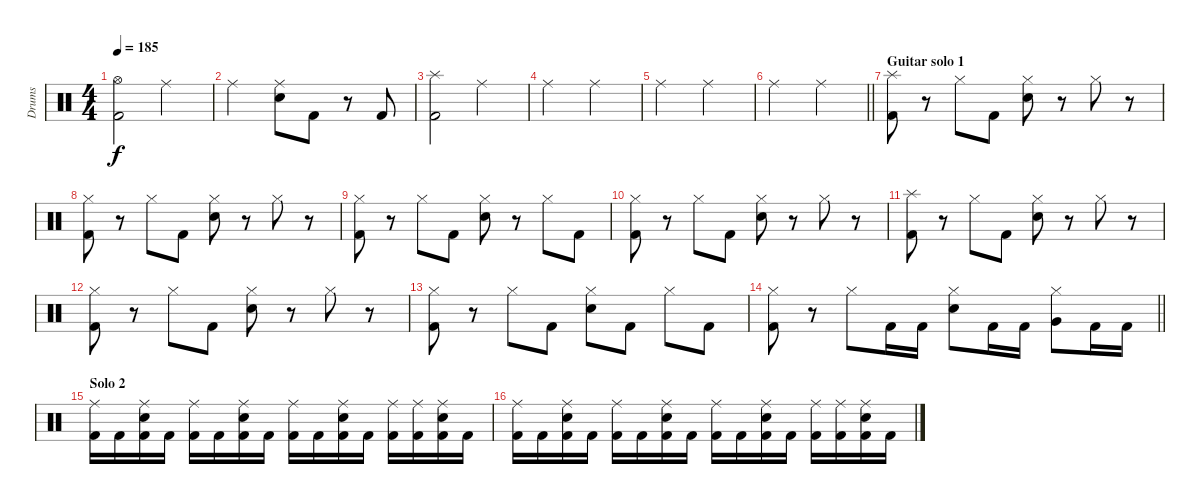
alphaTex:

\track ("Drums" "Drums") {instrument percussion}
\staff {score}
\articulation defaults
\ts (4 4)
\tempo 185
\clef neutral
\ks c
("Hi-Hat (open)" "Kick (hit) 2").2{dy f} "Ride (middle)".2 |
"Ride (middle)".2 ("Ride (middle)" "Electric Snare (hit)").8 "Kick (hit) 2".8 r.8 "Kick (hit) 2".8 |
("Splash (hit)" "Kick (hit) 2").2 "Ride (middle)".2 |
"Ride (middle)".2 "Ride (middle)".2 |
"Ride (middle)".2 "Ride (middle)".2 |
\barLineRight lightlight "Ride (middle)".2 "Ride (middle)".2
|
\section ("" "Guitar solo 1")
("Splash (hit)" "Kick (hit) 2").8 r.8 "Hi-Hat (closed)".8 "Kick (hit) 2".8 ("Hi-Hat (closed)" "Electric Snare (hit)").8 r.8 "Hi-Hat (closed)".8 r.8 |
("Hi-Hat (closed)" "Kick (hit) 2").8 r.8 "Hi-Hat (closed)".8 "Kick (hit) 2".8 ("Hi-Hat (closed)" "Electric Snare (hit)").8 r.8 "Hi-Hat (closed)".8 r.8 |
("Hi-Hat (closed)" "Kick (hit) 2").8 r.8 "Hi-Hat (closed)".8 "Kick (hit) 2".8 ("Hi-Hat (closed)" "Electric Snare (hit)").8 r.8 "Hi-Hat (closed)".8 "Kick (hit) 2".8 |
("Hi-Hat (closed)" "Kick (hit) 2").8 r.8 "Hi-Hat (closed)".8 "Kick (hit) 2".8 ("Hi-Hat (closed)" "Electric Snare (hit)").8 r.8 "Hi-Hat (closed)".8 r.8 |
("Splash (hit)" "Kick (hit) 2").8 r.8 "Hi-Hat (closed)".8 "Kick (hit) 2".8 ("Hi-Hat (closed)" "Electric Snare (hit)").8 r.8 "Hi-Hat (closed)".8 r.8 |
("Hi-Hat (closed)" "Kick (hit) 2").8 r.8 "Hi-Hat (closed)".8 "Kick (hit) 2".8 ("Hi-Hat (closed)" "Electric Snare (hit)").8 r.8 "Hi-Hat (closed)".8 r.8 |
("Hi-Hat (closed)" "Kick (hit) 2").8 r.8 "Hi-Hat (closed)".8 "Kick (hit) 2".8 ("Hi-Hat (closed)" "Electric Snare (hit)").8 "Kick (hit) 2".8 "Hi-Hat (closed)".8 "Kick (hit) 2".8 |
\barLineRight lightlight
("Hi-Hat (closed)" "Kick (hit) 2").8 r.8 "Hi-Hat (closed)".8 "Kick (hit) 2".16 "Kick (hit) 2".16 ("Hi-Hat (closed)" "Electric Snare (hit)").8 "Kick (hit) 2".16 "Kick (hit) 2".16 ("Hi-Hat (closed)" "Very Low Tom (hit)").8 "Kick (hit) 2".16 "Kick (hit) 2".16 |
\section ("" "Solo 2")
("Ride (middle)" "Kick (hit) 2").16 "Kick (hit) 2".16 ("Ride (middle)" "Electric Snare (hit)" "Kick (hit) 2").16 "Kick (hit) 2".16 ("Ride (middle)" "Kick (hit) 2").16 "Kick (hit) 2".16 ("Ride (middle)" "Electric Snare (hit)" "Kick (hit) 2").16 "Kick (hit) 2".16 ("Ride (middle)" "Kick (hit) 2").16 "Kick (hit) 2".16 ("Ride (middle)" "Electric Snare (hit)" "Kick (hit) 2").16 "Kick (hit) 2".16 ("Ride (middle)" "Kick (hit) 2").16 ("Ride (middle)" "Kick (hit) 2").16 ("Ride (middle)" "Electric Snare (hit)" "Kick (hit) 2").16 "Kick (hit) 2".16 |
("Ride (middle)" "Kick (hit) 2").16 "Kick (hit) 2".16 ("Ride (middle)" "Electric Snare (hit)" "Kick (hit) 2").16 "Kick (hit) 2".16 ("Ride (middle)" "Kick (hit) 2").16 "Kick (hit) 2".16 ("Ride (middle)" "Electric Snare (hit)" "Kick (hit) 2").16 "Kick (hit) 2".16 ("Ride (middle)" "Kick (hit) 2").16 "Kick (hit) 2".16 ("Ride (middle)" "Electric Snare (hit)" "Kick (hit) 2").16 "Kick (hit) 2".16 ("Ride (middle)" "Kick (hit) 2").16 ("Ride (middle)" "Kick (hit) 2").16 ("Ride (middle)" "Electric Snare (hit)" "Kick (hit) 2").16 "Kick (hit) 2".16
